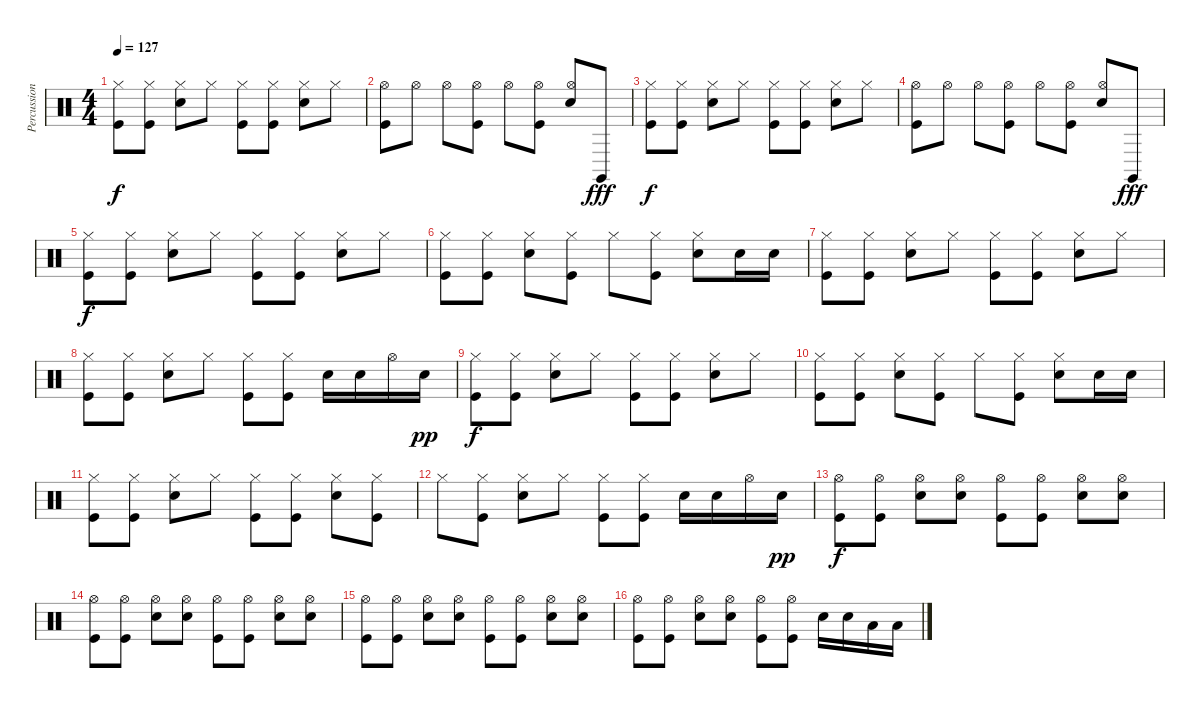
\track ("Percussion" "Percussion") {instrument percussion}
\staff {score}
\articulation defaults
\ts (4 4)
\tempo 127
\clef neutral
\ks c
("Hi-Hat (closed)" "Kick (hit)").8{dy f} ("Hi-Hat (closed)" "Kick (hit)").8 ("Hi-Hat (closed)" "Snare (hit) 2").8 "Hi-Hat (closed)".8 ("Hi-Hat (closed)" "Kick (hit)").8 ("Hi-Hat (closed)" "Kick (hit)").8 ("Hi-Hat (closed)" "Snare (hit) 2").8 "Hi-Hat (closed)".8 |
("Hi-Hat (open)" "Kick (hit)").8 "Hi-Hat (open)".8 "Hi-Hat (open)".8 ("Hi-Hat (open)" "Kick (hit)").8 "Hi-Hat (open)".8 ("Hi-Hat (open)" "Kick (hit)").8 ("Hi-Hat (open)" "Snare (hit) 2").8 "Claves (hit)".8{dy fff} |
("Hi-Hat (closed)" "Kick (hit)").8{dy f} ("Hi-Hat (closed)" "Kick (hit)").8 ("Hi-Hat (closed)" "Snare (hit) 2").8 "Hi-Hat (closed)".8 ("Hi-Hat (closed)" "Kick (hit)").8 ("Hi-Hat (closed)" "Kick (hit)").8 ("Hi-Hat (closed)" "Snare (hit) 2").8 "Hi-Hat (closed)".8 |
("Hi-Hat (open)" "Kick (hit)").8 "Hi-Hat (open)".8 "Hi-Hat (open)".8 ("Hi-Hat (open)" "Kick (hit)").8 "Hi-Hat (open)".8 ("Hi-Hat (open)" "Kick (hit)").8 ("Hi-Hat (open)" "Snare (hit) 2").8 "Claves (hit)".8{dy fff} |
("Hi-Hat (closed)" "Kick (hit)").8{dy f} ("Hi-Hat (closed)" "Kick (hit)").8 ("Hi-Hat (closed)" "Snare (hit) 2").8 "Hi-Hat (closed)".8 ("Hi-Hat (closed)" "Kick (hit)").8 ("Hi-Hat (closed)" "Kick (hit)").8 ("Hi-Hat (closed)" "Snare (hit) 2").8 "Hi-Hat (closed)".8 |
("Hi-Hat (closed)" "Kick (hit)").8 ("Hi-Hat (closed)" "Kick (hit)").8 ("Hi-Hat (closed)" "Snare (hit) 2").8 ("Hi-Hat (closed)" "Kick (hit)").8 "Hi-Hat (closed)".8 ("Hi-Hat (closed)" "Kick (hit)").8 ("Hi-Hat (closed)" "Snare (hit) 2").8 "Snare (hit) 2".16 "Snare (hit) 2".16 |
("Hi-Hat (closed)" "Kick (hit)").8 ("Hi-Hat (closed)" "Kick (hit)").8 ("Hi-Hat (closed)" "Snare (hit) 2").8 "Hi-Hat (closed)".8 ("Hi-Hat (closed)" "Kick (hit)").8 ("Hi-Hat (closed)" "Kick (hit)").8 ("Hi-Hat (closed)" "Snare (hit) 2").8 "Hi-Hat (closed)".8 |
("Hi-Hat (closed)" "Kick (hit)").8 ("Hi-Hat (closed)" "Kick (hit)").8 ("Hi-Hat (closed)" "Snare (hit) 2").8 "Hi-Hat (closed)".8 ("Hi-Hat (closed)" "Kick (hit)").8 ("Hi-Hat (closed)" "Kick (hit)").8 "Snare (hit) 2".16 "Snare (hit) 2".16 "Hi-Hat (open)".16 "Snare (hit) 2".16{dy pp} |
("Hi-Hat (closed)" "Kick (hit)").8{dy f} ("Hi-Hat (closed)" "Kick (hit)").8 ("Hi-Hat (closed)" "Snare (hit) 2").8 "Hi-Hat (closed)".8 ("Hi-Hat (closed)" "Kick (hit)").8 ("Hi-Hat (closed)" "Kick (hit)").8 ("Hi-Hat (closed)" "Snare (hit) 2").8 "Hi-Hat (closed)".8 |
("Hi-Hat (closed)" "Kick (hit)").8 ("Hi-Hat (closed)" "Kick (hit)").8 ("Hi-Hat (closed)" "Snare (hit) 2").8 ("Hi-Hat (closed)" "Kick (hit)").8 "Hi-Hat (closed)".8 ("Hi-Hat (closed)" "Kick (hit)").8 ("Hi-Hat (closed)" "Snare (hit) 2").8 "Snare (hit) 2".16 "Snare (hit) 2".16 |
("Hi-Hat (closed)" "Kick (hit)").8 ("Hi-Hat (closed)" "Kick (hit)").8 ("Hi-Hat (closed)" "Snare (hit) 2").8 "Hi-Hat (closed)".8 ("Hi-Hat (closed)" "Kick (hit)").8 ("Hi-Hat (closed)" "Kick (hit)").8 ("Hi-Hat (closed)" "Snare (hit) 2").8 ("Hi-Hat (closed)" "Kick (hit)").8 |
"Hi-Hat (closed)".8 ("Hi-Hat (closed)" "Kick (hit)").8 ("Hi-Hat (closed)" "Snare (hit) 2").8 "Hi-Hat (closed)".8 ("Hi-Hat (closed)" "Kick (hit)").8 ("Hi-Hat (closed)" "Kick (hit)").8 "Snare (hit) 2".16 "Snare (hit) 2".16 "Hi-Hat (open)".16 "Snare (hit) 2".16{dy pp} |
("Hi-Hat (open)" "Kick (hit)").8{dy f} ("Hi-Hat (open)" "Kick (hit)").8 ("Hi-Hat (open)" "Snare (hit) 2").8 ("Hi-Hat (open)" "Snare (hit) 2").8 ("Hi-Hat (open)" "Kick (hit)").8 ("Hi-Hat (open)" "Kick (hit)").8 ("Hi-Hat (open)" "Snare (hit) 2").8 ("Hi-Hat (open)" "Snare (hit) 2").8 |
("Hi-Hat (open)" "Kick (hit)").8 ("Hi-Hat (open)" "Kick (hit)").8 ("Hi-Hat (open)" "Snare (hit) 2").8 ("Hi-Hat (open)" "Snare (hit) 2").8 ("Hi-Hat (open)" "Kick (hit)").8 ("Hi-Hat (open)" "Kick (hit)").8 ("Hi-Hat (open)" "Snare (hit) 2").8 ("Hi-Hat (open)" "Snare (hit) 2").8 |
("Hi-Hat (open)" "Kick (hit)").8 ("Hi-Hat (open)" "Kick (hit)").8 ("Hi-Hat (open)" "Snare (hit) 2").8 ("Hi-Hat (open)" "Snare (hit) 2").8 ("Hi-Hat (open)" "Kick (hit)").8 ("Hi-Hat (open)" "Kick (hit)").8 ("Hi-Hat (open)" "Snare (hit) 2").8 ("Hi-Hat (open)" "Snare (hit) 2").8 |
("Hi-Hat (open)" "Kick (hit)").8 ("Hi-Hat (open)" "Kick (hit)").8 ("Hi-Hat (open)" "Snare (hit) 2").8 ("Hi-Hat (open)" "Snare (hit) 2").8 ("Hi-Hat (open)" "Kick (hit)").8 ("Hi-Hat (open)" "Kick (hit)").8 "Snare (hit) 2".16 "Snare (hit) 2".16 "Low Tom (hit)".16 "Low Tom (hit)".16
